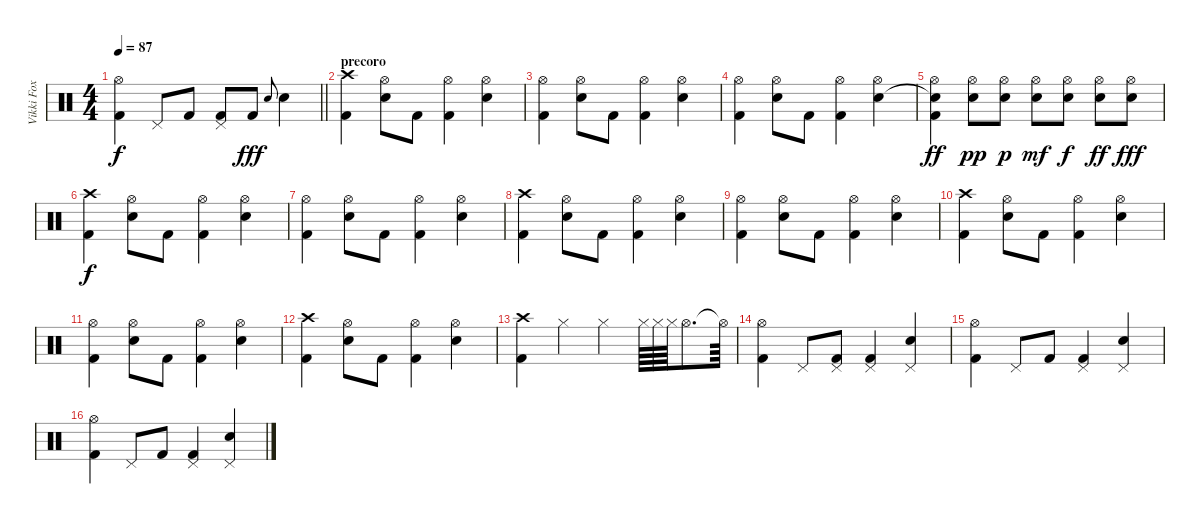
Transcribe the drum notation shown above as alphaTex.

\track ("Vikki Fox" "Vikki Fox") {instrument percussion}
\staff {score}
\articulation defaults
\ts (4 4)
\tempo 87
\clef neutral
\barLineRight lightlight
\ks c
("Hi-Hat (open)" "Kick (hit) 2").4{dy f} "Pedal Hi-Hat (hit)".8 "Kick (hit) 2".8 ("Pedal Hi-Hat (hit)" "Kick (hit) 2").8 "Kick (hit) 2".8{dy fff} "Snare (hit) 2".8{gr onbeat} "Snare (hit) 2".4{volume 16} |
\section ("" "precoro")
("Crash high (hit)" "Kick (hit) 2").4{volume 11} ("Hi-Hat (open)" "Snare (hit) 2").8 "Kick (hit) 2".8 ("Hi-Hat (open)" "Kick (hit) 2").4 ("Hi-Hat (open)" "Snare (hit) 2").4 |
("Hi-Hat (open)" "Kick (hit) 2").4 ("Hi-Hat (open)" "Snare (hit) 2").8 "Kick (hit) 2".8 ("Hi-Hat (open)" "Kick (hit) 2").4 ("Hi-Hat (open)" "Snare (hit) 2").4 |
("Hi-Hat (open)" "Kick (hit) 2").4 ("Hi-Hat (open)" "Snare (hit) 2").8 "Kick (hit) 2".8 ("Hi-Hat (open)" "Kick (hit) 2").4 ("Hi-Hat (open)" "Snare (hit) 2").4{volume 16} |
("Hi-Hat (open)" "Snare (hit)"{t} "Kick (hit) 2").4{dy ff} ("Hi-Hat (open)" "Snare (hit) 2").8{dy pp volume 11} ("Hi-Hat (open)" "Snare (hit) 2").8{dy p} ("Hi-Hat (open)" "Snare (hit) 2").8{dy mf} ("Hi-Hat (open)" "Snare (hit) 2").8{dy f} ("Hi-Hat (open)" "Snare (hit) 2").8{dy ff} ("Hi-Hat (open)" "Snare (hit) 2").8{dy fff} |
("Crash high (hit)" "Kick (hit) 2").4{dy f} ("Hi-Hat (open)" "Snare (hit) 2").8 "Kick (hit) 2".8 ("Hi-Hat (open)" "Kick (hit) 2").4 ("Hi-Hat (open)" "Snare (hit) 2").4 |
("Hi-Hat (open)" "Kick (hit) 2").4 ("Hi-Hat (open)" "Snare (hit) 2").8 "Kick (hit) 2".8 ("Hi-Hat (open)" "Kick (hit) 2").4 ("Hi-Hat (open)" "Snare (hit) 2").4 |
("Crash high (hit)" "Kick (hit) 2").4 ("Hi-Hat (open)" "Snare (hit) 2").8 "Kick (hit) 2".8 ("Hi-Hat (open)" "Kick (hit) 2").4 ("Hi-Hat (open)" "Snare (hit) 2").4 |
("Hi-Hat (open)" "Kick (hit) 2").4 ("Hi-Hat (open)" "Snare (hit) 2").8 "Kick (hit) 2".8 ("Hi-Hat (open)" "Kick (hit) 2").4 ("Hi-Hat (open)" "Snare (hit) 2").4 |
("Crash high (hit)" "Kick (hit) 2").4 ("Hi-Hat (open)" "Snare (hit) 2").8 "Kick (hit) 2".8 ("Hi-Hat (open)" "Kick (hit) 2").4 ("Hi-Hat (open)" "Snare (hit) 2").4 |
("Hi-Hat (open)" "Kick (hit) 2").4 ("Hi-Hat (open)" "Snare (hit) 2").8 "Kick (hit) 2".8 ("Hi-Hat (open)" "Kick (hit) 2").4 ("Hi-Hat (open)" "Snare (hit) 2").4 |
("Crash high (hit)" "Kick (hit) 2").4 ("Hi-Hat (open)" "Snare (hit) 2").8 "Kick (hit) 2".8 ("Hi-Hat (open)" "Kick (hit) 2").4 ("Hi-Hat (open)" "Snare (hit) 2").4 |
("Crash high (hit)" "Kick (hit) 2").4 "Hi-Hat (closed)".4 "Hi-Hat (closed)".4 "Hi-Hat (closed)".64 "Hi-Hat (closed)".64 "Hi-Hat (closed)".64 "Hi-Hat (open)".8{d} "Hi-Hat (open)"{t}.64 |
("Hi-Hat (open)" "Kick (hit) 2").4 "Pedal Hi-Hat (hit)".8 ("Pedal Hi-Hat (hit)" "Kick (hit) 2").8 ("Pedal Hi-Hat (hit)" "Kick (hit) 2").4 ("Pedal Hi-Hat (hit)" "Snare (hit) 2").4 |
("Hi-Hat (open)" "Kick (hit) 2").4 "Pedal Hi-Hat (hit)".8 "Kick (hit) 2".8 ("Pedal Hi-Hat (hit)" "Kick (hit) 2").4 ("Pedal Hi-Hat (hit)" "Snare (hit) 2").4 |
("Hi-Hat (open)" "Kick (hit) 2").4 "Pedal Hi-Hat (hit)".8 "Kick (hit) 2".8 ("Pedal Hi-Hat (hit)" "Kick (hit) 2").4 ("Pedal Hi-Hat (hit)" "Snare (hit) 2").4
